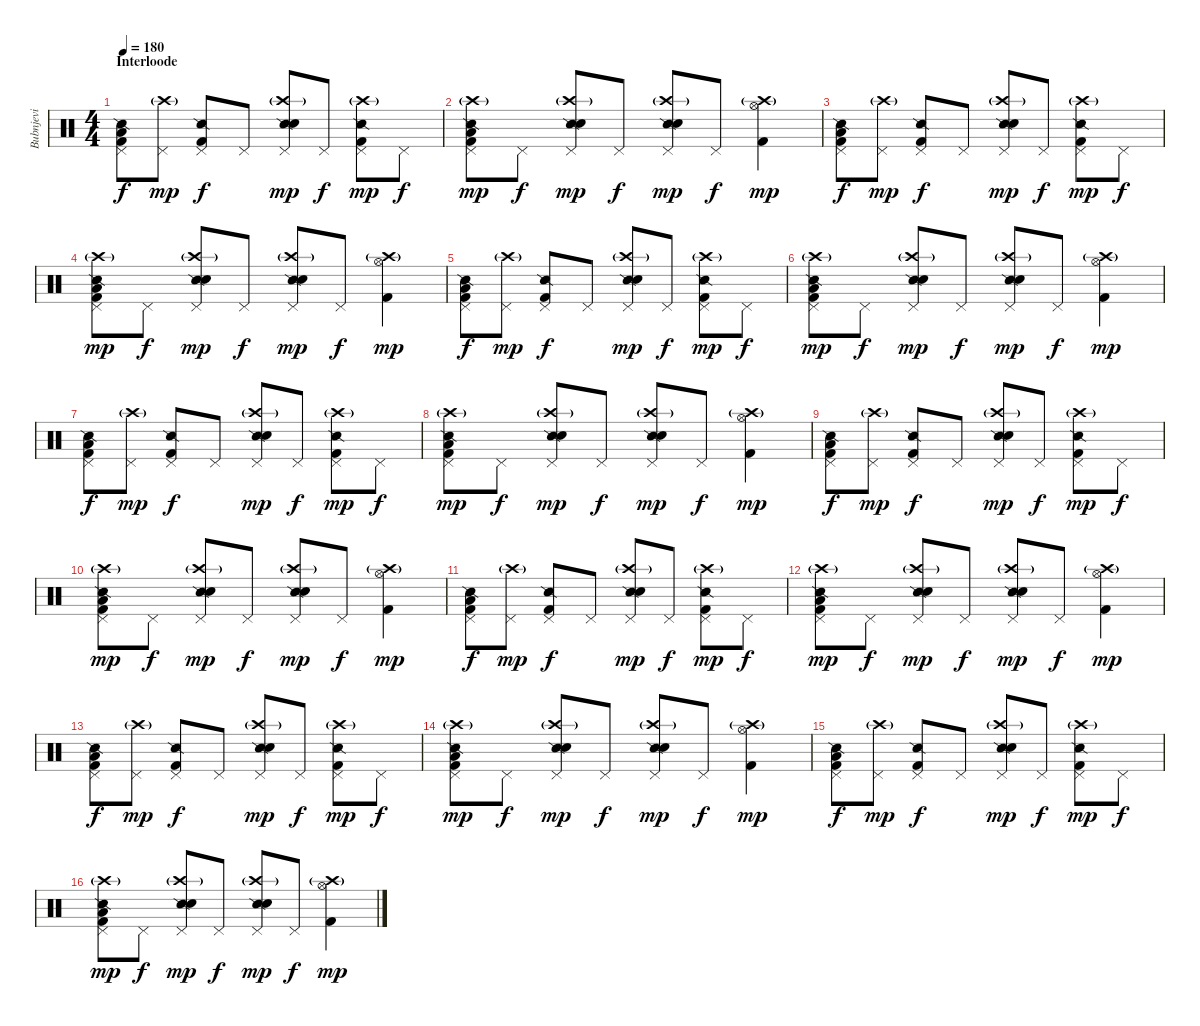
\track ("Bubnjevi" "Bubnjevi") {instrument percussion}
\staff {score}
\articulation defaults
\ts (4 4)
\section ("" "Interloode")
\tempo 180
\clef neutral
\ks c
("Snare (side stick) 2" "Pedal Hi-Hat (hit)" "Low Tom (hit)" "Kick (hit) 2").8{dy f} ("Crash high (hit)"{g} "Pedal Hi-Hat (hit)").8{dy mp} ("Snare (side stick) 2" "Pedal Hi-Hat (hit)" "Kick (hit) 2").8{dy f} "Pedal Hi-Hat (hit)".8 ("Crash high (hit)"{g} "Snare (side stick) 2" "Pedal Hi-Hat (hit)" "Electric Snare (hit)").8{dy mp} "Pedal Hi-Hat (hit)".8{dy f} ("Crash high (hit)"{g} "Snare (side stick) 2" "Pedal Hi-Hat (hit)" "Kick (hit) 2").8{dy mp} "Pedal Hi-Hat (hit)".8{dy f} |
("Crash high (hit)"{g} "Snare (side stick) 2" "Pedal Hi-Hat (hit)" "Low Tom (hit)" "Kick (hit) 2").8{dy mp} "Pedal Hi-Hat (hit)".8{dy f} ("Crash high (hit)"{g} "Snare (side stick) 2" "Pedal Hi-Hat (hit)" "Hand Clap (hit)").8{dy mp} "Pedal Hi-Hat (hit)".8{dy f} ("Crash high (hit)"{g} "Snare (side stick) 2" "Pedal Hi-Hat (hit)" "Electric Snare (hit)").8{dy mp} "Pedal Hi-Hat (hit)".8{dy f} ("Crash high (hit)"{g} "Hi-Hat (open)" "Kick (hit) 2").4{dy mp} |
("Snare (side stick) 2" "Pedal Hi-Hat (hit)" "Low Tom (hit)" "Kick (hit) 2").8{dy f} ("Crash high (hit)"{g} "Pedal Hi-Hat (hit)").8{dy mp} ("Snare (side stick) 2" "Pedal Hi-Hat (hit)" "Kick (hit) 2").8{dy f} "Pedal Hi-Hat (hit)".8 ("Crash high (hit)"{g} "Snare (side stick) 2" "Pedal Hi-Hat (hit)" "Electric Snare (hit)").8{dy mp} "Pedal Hi-Hat (hit)".8{dy f} ("Crash high (hit)"{g} "Snare (side stick) 2" "Pedal Hi-Hat (hit)" "Kick (hit) 2").8{dy mp} "Pedal Hi-Hat (hit)".8{dy f} |
("Crash high (hit)"{g} "Snare (side stick) 2" "Pedal Hi-Hat (hit)" "Low Tom (hit)" "Kick (hit) 2").8{dy mp} "Pedal Hi-Hat (hit)".8{dy f} ("Crash high (hit)"{g} "Snare (side stick) 2" "Pedal Hi-Hat (hit)" "Hand Clap (hit)").8{dy mp} "Pedal Hi-Hat (hit)".8{dy f} ("Crash high (hit)"{g} "Snare (side stick) 2" "Pedal Hi-Hat (hit)" "Electric Snare (hit)").8{dy mp} "Pedal Hi-Hat (hit)".8{dy f} ("Crash high (hit)"{g} "Hi-Hat (open)" "Kick (hit) 2").4{dy mp} |
("Snare (side stick) 2" "Pedal Hi-Hat (hit)" "Low Tom (hit)" "Kick (hit) 2").8{dy f} ("Crash high (hit)"{g} "Pedal Hi-Hat (hit)").8{dy mp} ("Snare (side stick) 2" "Pedal Hi-Hat (hit)" "Kick (hit) 2").8{dy f} "Pedal Hi-Hat (hit)".8 ("Crash high (hit)"{g} "Snare (side stick) 2" "Pedal Hi-Hat (hit)" "Electric Snare (hit)").8{dy mp} "Pedal Hi-Hat (hit)".8{dy f} ("Crash high (hit)"{g} "Snare (side stick) 2" "Pedal Hi-Hat (hit)" "Kick (hit) 2").8{dy mp} "Pedal Hi-Hat (hit)".8{dy f} |
("Crash high (hit)"{g} "Snare (side stick) 2" "Pedal Hi-Hat (hit)" "Low Tom (hit)" "Kick (hit) 2").8{dy mp} "Pedal Hi-Hat (hit)".8{dy f} ("Crash high (hit)"{g} "Snare (side stick) 2" "Pedal Hi-Hat (hit)" "Hand Clap (hit)").8{dy mp} "Pedal Hi-Hat (hit)".8{dy f} ("Crash high (hit)"{g} "Snare (side stick) 2" "Pedal Hi-Hat (hit)" "Electric Snare (hit)").8{dy mp} "Pedal Hi-Hat (hit)".8{dy f} ("Crash high (hit)"{g} "Hi-Hat (open)" "Kick (hit) 2").4{dy mp} |
("Snare (side stick) 2" "Pedal Hi-Hat (hit)" "Low Tom (hit)" "Kick (hit) 2").8{dy f} ("Crash high (hit)"{g} "Pedal Hi-Hat (hit)").8{dy mp} ("Snare (side stick) 2" "Pedal Hi-Hat (hit)" "Kick (hit) 2").8{dy f} "Pedal Hi-Hat (hit)".8 ("Crash high (hit)"{g} "Snare (side stick) 2" "Pedal Hi-Hat (hit)" "Electric Snare (hit)").8{dy mp} "Pedal Hi-Hat (hit)".8{dy f} ("Crash high (hit)"{g} "Snare (side stick) 2" "Pedal Hi-Hat (hit)" "Kick (hit) 2").8{dy mp} "Pedal Hi-Hat (hit)".8{dy f} |
("Crash high (hit)"{g} "Snare (side stick) 2" "Pedal Hi-Hat (hit)" "Low Tom (hit)" "Kick (hit) 2").8{dy mp} "Pedal Hi-Hat (hit)".8{dy f} ("Crash high (hit)"{g} "Snare (side stick) 2" "Pedal Hi-Hat (hit)" "Hand Clap (hit)").8{dy mp} "Pedal Hi-Hat (hit)".8{dy f} ("Crash high (hit)"{g} "Snare (side stick) 2" "Pedal Hi-Hat (hit)" "Electric Snare (hit)").8{dy mp} "Pedal Hi-Hat (hit)".8{dy f} ("Crash high (hit)"{g} "Hi-Hat (open)" "Kick (hit) 2").4{dy mp} |
("Snare (side stick) 2" "Pedal Hi-Hat (hit)" "Low Tom (hit)" "Kick (hit) 2").8{dy f} ("Crash high (hit)"{g} "Pedal Hi-Hat (hit)").8{dy mp} ("Snare (side stick) 2" "Pedal Hi-Hat (hit)" "Kick (hit) 2").8{dy f} "Pedal Hi-Hat (hit)".8 ("Crash high (hit)"{g} "Snare (side stick) 2" "Pedal Hi-Hat (hit)" "Electric Snare (hit)").8{dy mp} "Pedal Hi-Hat (hit)".8{dy f} ("Crash high (hit)"{g} "Snare (side stick) 2" "Pedal Hi-Hat (hit)" "Kick (hit) 2").8{dy mp} "Pedal Hi-Hat (hit)".8{dy f} |
("Crash high (hit)"{g} "Snare (side stick) 2" "Pedal Hi-Hat (hit)" "Low Tom (hit)" "Kick (hit) 2").8{dy mp} "Pedal Hi-Hat (hit)".8{dy f} ("Crash high (hit)"{g} "Snare (side stick) 2" "Pedal Hi-Hat (hit)" "Hand Clap (hit)").8{dy mp} "Pedal Hi-Hat (hit)".8{dy f} ("Crash high (hit)"{g} "Snare (side stick) 2" "Pedal Hi-Hat (hit)" "Electric Snare (hit)").8{dy mp} "Pedal Hi-Hat (hit)".8{dy f} ("Crash high (hit)"{g} "Hi-Hat (open)" "Kick (hit) 2").4{dy mp} |
("Snare (side stick) 2" "Pedal Hi-Hat (hit)" "Low Tom (hit)" "Kick (hit) 2").8{dy f} ("Crash high (hit)"{g} "Pedal Hi-Hat (hit)").8{dy mp} ("Snare (side stick) 2" "Pedal Hi-Hat (hit)" "Kick (hit) 2").8{dy f} "Pedal Hi-Hat (hit)".8 ("Crash high (hit)"{g} "Snare (side stick) 2" "Pedal Hi-Hat (hit)" "Electric Snare (hit)").8{dy mp} "Pedal Hi-Hat (hit)".8{dy f} ("Crash high (hit)"{g} "Snare (side stick) 2" "Pedal Hi-Hat (hit)" "Kick (hit) 2").8{dy mp} "Pedal Hi-Hat (hit)".8{dy f} |
("Crash high (hit)"{g} "Snare (side stick) 2" "Pedal Hi-Hat (hit)" "Low Tom (hit)" "Kick (hit) 2").8{dy mp} "Pedal Hi-Hat (hit)".8{dy f} ("Crash high (hit)"{g} "Snare (side stick) 2" "Pedal Hi-Hat (hit)" "Hand Clap (hit)").8{dy mp} "Pedal Hi-Hat (hit)".8{dy f} ("Crash high (hit)"{g} "Snare (side stick) 2" "Pedal Hi-Hat (hit)" "Electric Snare (hit)").8{dy mp} "Pedal Hi-Hat (hit)".8{dy f} ("Crash high (hit)"{g} "Hi-Hat (open)" "Kick (hit) 2").4{dy mp} |
("Snare (side stick) 2" "Pedal Hi-Hat (hit)" "Low Tom (hit)" "Kick (hit) 2").8{dy f} ("Crash high (hit)"{g} "Pedal Hi-Hat (hit)").8{dy mp} ("Snare (side stick) 2" "Pedal Hi-Hat (hit)" "Kick (hit) 2").8{dy f} "Pedal Hi-Hat (hit)".8 ("Crash high (hit)"{g} "Snare (side stick) 2" "Pedal Hi-Hat (hit)" "Electric Snare (hit)").8{dy mp} "Pedal Hi-Hat (hit)".8{dy f} ("Crash high (hit)"{g} "Snare (side stick) 2" "Pedal Hi-Hat (hit)" "Kick (hit) 2").8{dy mp} "Pedal Hi-Hat (hit)".8{dy f} |
("Crash high (hit)"{g} "Snare (side stick) 2" "Pedal Hi-Hat (hit)" "Low Tom (hit)" "Kick (hit) 2").8{dy mp} "Pedal Hi-Hat (hit)".8{dy f} ("Crash high (hit)"{g} "Snare (side stick) 2" "Pedal Hi-Hat (hit)" "Hand Clap (hit)").8{dy mp} "Pedal Hi-Hat (hit)".8{dy f} ("Crash high (hit)"{g} "Snare (side stick) 2" "Pedal Hi-Hat (hit)" "Electric Snare (hit)").8{dy mp} "Pedal Hi-Hat (hit)".8{dy f} ("Crash high (hit)"{g} "Hi-Hat (open)" "Kick (hit) 2").4{dy mp} |
("Snare (side stick) 2" "Pedal Hi-Hat (hit)" "Low Tom (hit)" "Kick (hit) 2").8{dy f} ("Crash high (hit)"{g} "Pedal Hi-Hat (hit)").8{dy mp} ("Snare (side stick) 2" "Pedal Hi-Hat (hit)" "Kick (hit) 2").8{dy f} "Pedal Hi-Hat (hit)".8 ("Crash high (hit)"{g} "Snare (side stick) 2" "Pedal Hi-Hat (hit)" "Electric Snare (hit)").8{dy mp} "Pedal Hi-Hat (hit)".8{dy f} ("Crash high (hit)"{g} "Snare (side stick) 2" "Pedal Hi-Hat (hit)" "Kick (hit) 2").8{dy mp} "Pedal Hi-Hat (hit)".8{dy f} |
("Crash high (hit)"{g} "Snare (side stick) 2" "Pedal Hi-Hat (hit)" "Low Tom (hit)" "Kick (hit) 2").8{dy mp} "Pedal Hi-Hat (hit)".8{dy f} ("Crash high (hit)"{g} "Snare (side stick) 2" "Pedal Hi-Hat (hit)" "Hand Clap (hit)").8{dy mp} "Pedal Hi-Hat (hit)".8{dy f} ("Crash high (hit)"{g} "Snare (side stick) 2" "Pedal Hi-Hat (hit)" "Electric Snare (hit)").8{dy mp} "Pedal Hi-Hat (hit)".8{dy f} ("Crash high (hit)"{g} "Hi-Hat (open)" "Kick (hit) 2").4{dy mp}
